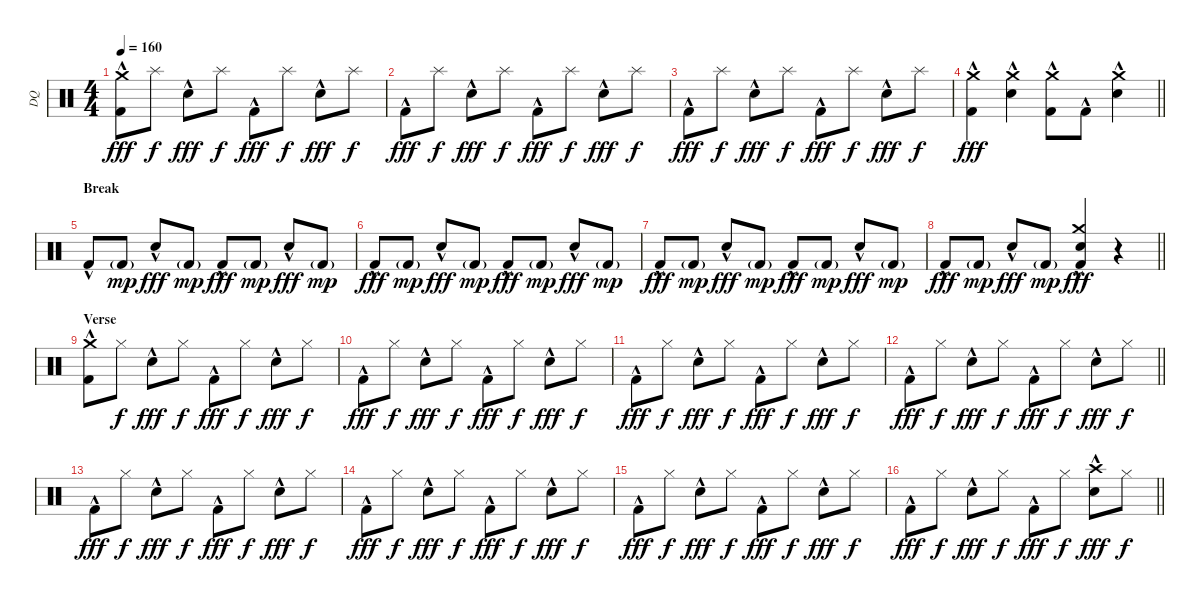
\track ("DQ" "DQ") {instrument percussion}
\staff {score}
\articulation defaults
\ts (4 4)
\section ("" "")
\tempo 160
\clef neutral
\ks c
("Kick (hit) 2"{hac} "Crash medium (hit)").8{dy fff} "Splash (hit)".8{dy f} "Snare (hit) 2"{hac}.8{dy fff} "Splash (hit)".8{dy f} "Kick (hit) 2"{hac}.8{dy fff} "Splash (hit)".8{dy f} "Snare (hit) 2"{hac}.8{dy fff} "Splash (hit)".8{dy f} |
"Kick (hit) 2"{hac}.8{dy fff} "Splash (hit)".8{dy f} "Snare (hit) 2"{hac}.8{dy fff} "Splash (hit)".8{dy f} "Kick (hit) 2"{hac}.8{dy fff} "Splash (hit)".8{dy f} "Snare (hit) 2"{hac}.8{dy fff} "Splash (hit)".8{dy f} |
"Kick (hit) 2"{hac}.8{dy fff} "Splash (hit)".8{dy f} "Snare (hit) 2"{hac}.8{dy fff} "Splash (hit)".8{dy f} "Kick (hit) 2"{hac}.8{dy fff} "Splash (hit)".8{dy f} "Snare (hit) 2"{hac}.8{dy fff} "Splash (hit)".8{dy f} |
\barLineRight lightlight
("Kick (hit) 2"{hac} "Crash medium (hit)").4{dy fff} ("Snare (hit) 2"{hac} "Crash medium (hit)").4 ("Kick (hit) 2"{hac} "Crash medium (hit)").8 "Kick (hit) 2"{hac}.8 ("Snare (hit) 2"{hac} "Crash medium (hit)").4 |
\section ("" "Break")
"Kick (hit) 2"{hac}.8 "Kick (hit) 2"{g}.8{dy mp} "Snare (hit) 2"{hac}.8{dy fff} "Kick (hit) 2"{g}.8{dy mp} "Kick (hit) 2"{hac}.8{dy fff} "Kick (hit) 2"{g}.8{dy mp} "Snare (hit) 2"{hac}.8{dy fff} "Kick (hit) 2"{g}.8{dy mp} |
"Kick (hit) 2"{hac}.8{dy fff} "Kick (hit) 2"{g}.8{dy mp} "Snare (hit) 2"{hac}.8{dy fff} "Kick (hit) 2"{g}.8{dy mp} "Kick (hit) 2"{hac}.8{dy fff} "Kick (hit) 2"{g}.8{dy mp} "Snare (hit) 2"{hac}.8{dy fff} "Kick (hit) 2"{g}.8{dy mp} |
"Kick (hit) 2"{hac}.8{dy fff} "Kick (hit) 2"{g}.8{dy mp} "Snare (hit) 2"{hac}.8{dy fff} "Kick (hit) 2"{g}.8{dy mp} "Kick (hit) 2"{hac}.8{dy fff} "Kick (hit) 2"{g}.8{dy mp} "Snare (hit) 2"{hac}.8{dy fff} "Kick (hit) 2"{g}.8{dy mp} |
\barLineRight lightlight "Kick (hit) 2"{hac}.8{dy fff} "Kick (hit) 2"{g}.8{dy mp} "Snare (hit) 2"{hac}.8{dy fff} "Kick (hit) 2"{g}.8{dy mp}
("Kick (hit) 2"{hac} "Snare (hit) 2"{hac} "Crash medium (hit)").4{dy fff} r.4 |
\section ("" "Verse")
("Kick (hit) 2"{hac} "Crash medium (hit)").8 "Hi-Hat (closed)".8{dy f} "Snare (hit) 2"{hac}.8{dy fff} "Hi-Hat (closed)".8{dy f} "Kick (hit) 2"{hac}.8{dy fff} "Hi-Hat (closed)".8{dy f} "Snare (hit) 2"{hac}.8{dy fff} "Hi-Hat (closed)".8{dy f} |
"Kick (hit) 2"{hac}.8{dy fff} "Hi-Hat (closed)".8{dy f} "Snare (hit) 2"{hac}.8{dy fff} "Hi-Hat (closed)".8{dy f} "Kick (hit) 2"{hac}.8{dy fff} "Hi-Hat (closed)".8{dy f} "Snare (hit) 2"{hac}.8{dy fff} "Hi-Hat (closed)".8{dy f} |
"Kick (hit) 2"{hac}.8{dy fff} "Hi-Hat (closed)".8{dy f} "Snare (hit) 2"{hac}.8{dy fff} "Hi-Hat (closed)".8{dy f} "Kick (hit) 2"{hac}.8{dy fff} "Hi-Hat (closed)".8{dy f} "Snare (hit) 2"{hac}.8{dy fff} "Hi-Hat (closed)".8{dy f} |
\barLineRight lightlight "Kick (hit) 2"{hac}.8{dy fff} "Hi-Hat (closed)".8{dy f} "Snare (hit) 2"{hac}.8{dy fff} "Hi-Hat (closed)".8{dy f} "Kick (hit) 2"{hac}.8{dy fff} "Hi-Hat (closed)".8{dy f} "Snare (hit) 2"{hac}.8{dy fff} "Hi-Hat (closed)".8{dy f}
|
\section ("" "")
"Kick (hit) 2"{hac}.8{dy fff} "Hi-Hat (closed)".8{dy f} "Snare (hit) 2"{hac}.8{dy fff} "Hi-Hat (closed)".8{dy f} "Kick (hit) 2"{hac}.8{dy fff} "Hi-Hat (closed)".8{dy f} "Snare (hit) 2"{hac}.8{dy fff} "Hi-Hat (closed)".8{dy f} |
"Kick (hit) 2"{hac}.8{dy fff} "Hi-Hat (closed)".8{dy f} "Snare (hit) 2"{hac}.8{dy fff} "Hi-Hat (closed)".8{dy f} "Kick (hit) 2"{hac}.8{dy fff} "Hi-Hat (closed)".8{dy f} "Snare (hit) 2"{hac}.8{dy fff} "Hi-Hat (closed)".8{dy f} |
"Kick (hit) 2"{hac}.8{dy fff} "Hi-Hat (closed)".8{dy f} "Snare (hit) 2"{hac}.8{dy fff} "Hi-Hat (closed)".8{dy f} "Kick (hit) 2"{hac}.8{dy fff} "Hi-Hat (closed)".8{dy f} "Snare (hit) 2"{hac}.8{dy fff} "Hi-Hat (closed)".8{dy f} |
\barLineRight lightlight "Kick (hit) 2"{hac}.8{dy fff} "Hi-Hat (closed)".8{dy f} "Snare (hit) 2"{hac}.8{dy fff} "Hi-Hat (closed)".8{dy f} "Kick (hit) 2"{hac}.8{dy fff} "Hi-Hat (closed)".8{dy f}
("Snare (hit) 2"{hac} "Crash high (hit)").8{dy fff} "Hi-Hat (closed)".8{dy f}
